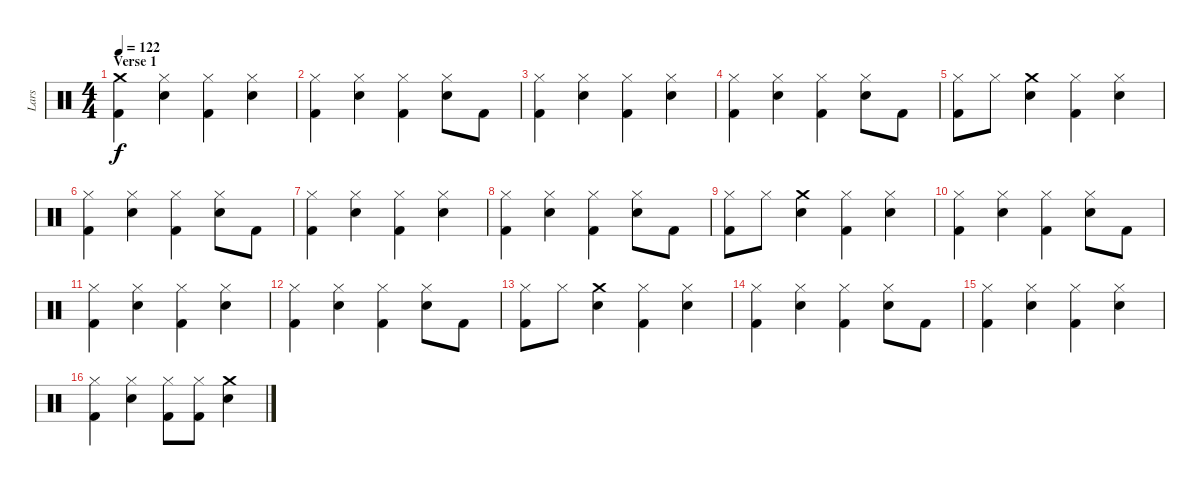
\track ("Lars" "Lars") {instrument percussion}
\staff {score}
\articulation defaults
\ts (4 4)
\section ("" "Verse 1")
\tempo 122
\clef neutral
\ks c
("Crash medium (hit)" "Kick (hit) 2").4{dy f} ("Hi-Hat (closed)" "Snare (hit) 2").4 ("Hi-Hat (closed)" "Kick (hit) 2").4 ("Hi-Hat (closed)" "Snare (hit) 2").4 |
("Hi-Hat (closed)" "Kick (hit) 2").4 ("Hi-Hat (closed)" "Snare (hit) 2").4 ("Hi-Hat (closed)" "Kick (hit) 2").4 ("Hi-Hat (closed)" "Snare (hit) 2").8 "Kick (hit) 2".8 |
("Hi-Hat (closed)" "Kick (hit) 2").4 ("Hi-Hat (closed)" "Snare (hit) 2").4 ("Hi-Hat (closed)" "Kick (hit) 2").4 ("Hi-Hat (closed)" "Snare (hit) 2").4 |
("Hi-Hat (closed)" "Kick (hit) 2").4 ("Hi-Hat (closed)" "Snare (hit) 2").4 ("Hi-Hat (closed)" "Kick (hit) 2").4 ("Hi-Hat (closed)" "Snare (hit) 2").8 "Kick (hit) 2".8 |
("Hi-Hat (closed)" "Kick (hit) 2").8 "Hi-Hat (closed)".8 ("Crash medium (hit)" "Snare (hit) 2").4 ("Hi-Hat (closed)" "Kick (hit) 2").4 ("Hi-Hat (closed)" "Snare (hit) 2").4 |
("Hi-Hat (closed)" "Kick (hit) 2").4 ("Hi-Hat (closed)" "Snare (hit) 2").4 ("Hi-Hat (closed)" "Kick (hit) 2").4 ("Hi-Hat (closed)" "Snare (hit) 2").8 "Kick (hit) 2".8 |
("Hi-Hat (closed)" "Kick (hit) 2").4 ("Hi-Hat (closed)" "Snare (hit) 2").4 ("Hi-Hat (closed)" "Kick (hit) 2").4 ("Hi-Hat (closed)" "Snare (hit) 2").4 |
("Hi-Hat (closed)" "Kick (hit) 2").4 ("Hi-Hat (closed)" "Snare (hit) 2").4 ("Hi-Hat (closed)" "Kick (hit) 2").4 ("Hi-Hat (closed)" "Snare (hit) 2").8 "Kick (hit) 2".8 |
("Hi-Hat (closed)" "Kick (hit) 2").8 "Hi-Hat (closed)".8 ("Crash medium (hit)" "Snare (hit) 2").4 ("Hi-Hat (closed)" "Kick (hit) 2").4 ("Hi-Hat (closed)" "Snare (hit) 2").4 |
("Hi-Hat (closed)" "Kick (hit) 2").4 ("Hi-Hat (closed)" "Snare (hit) 2").4 ("Hi-Hat (closed)" "Kick (hit) 2").4 ("Hi-Hat (closed)" "Snare (hit) 2").8 "Kick (hit) 2".8 |
("Hi-Hat (closed)" "Kick (hit) 2").4 ("Hi-Hat (closed)" "Snare (hit) 2").4 ("Hi-Hat (closed)" "Kick (hit) 2").4 ("Hi-Hat (closed)" "Snare (hit) 2").4 |
("Hi-Hat (closed)" "Kick (hit) 2").4 ("Hi-Hat (closed)" "Snare (hit) 2").4 ("Hi-Hat (closed)" "Kick (hit) 2").4 ("Hi-Hat (closed)" "Snare (hit) 2").8 "Kick (hit) 2".8 |
("Hi-Hat (closed)" "Kick (hit) 2").8 "Hi-Hat (closed)".8 ("Crash medium (hit)" "Snare (hit) 2").4 ("Hi-Hat (closed)" "Kick (hit) 2").4 ("Hi-Hat (closed)" "Snare (hit) 2").4 |
("Hi-Hat (closed)" "Kick (hit) 2").4 ("Hi-Hat (closed)" "Snare (hit) 2").4 ("Hi-Hat (closed)" "Kick (hit) 2").4 ("Hi-Hat (closed)" "Snare (hit) 2").8 "Kick (hit) 2".8 |
("Hi-Hat (closed)" "Kick (hit) 2").4 ("Hi-Hat (closed)" "Snare (hit) 2").4 ("Hi-Hat (closed)" "Kick (hit) 2").4 ("Hi-Hat (closed)" "Snare (hit) 2").4 |
("Hi-Hat (closed)" "Kick (hit) 2").4 ("Hi-Hat (closed)" "Snare (hit) 2").4 ("Hi-Hat (closed)" "Kick (hit) 2").8 ("Hi-Hat (closed)" "Kick (hit) 2").8 ("Crash medium (hit)" "Snare (hit) 2").4
